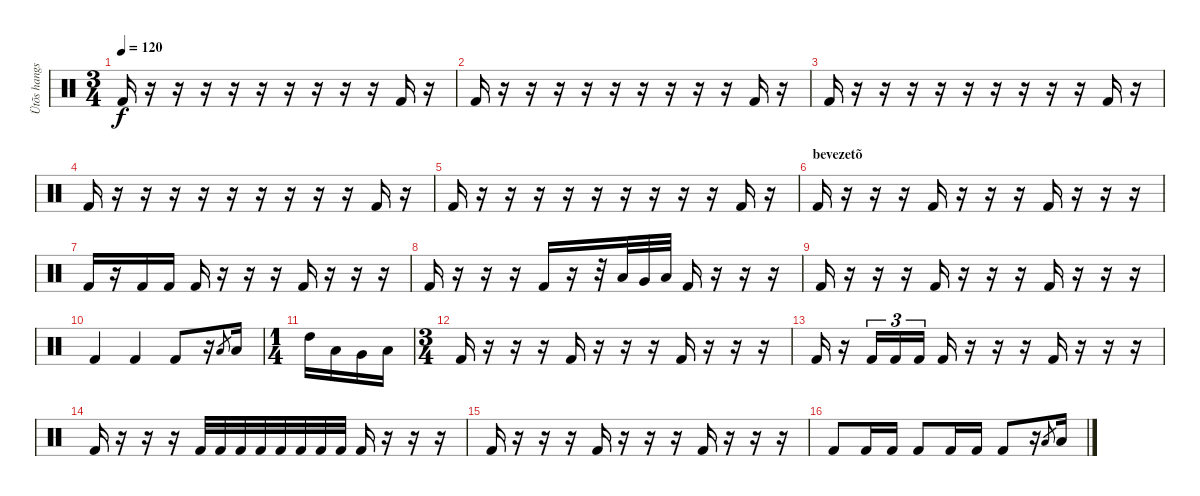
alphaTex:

\track ("Ütõs hangszer" "Ütõs hangs") {instrument percussion}
\staff {score}
\articulation defaults
\ts (3 4)
\tempo 120
\clef neutral
\ks c "Kick (hit) 2".16{dy f}
r.16 r.16 r.16 r.16 r.16 r.16 r.16 r.16 r.16 "Kick (hit) 2".16 r.16 |
"Kick (hit) 2".16 r.16 r.16 r.16 r.16 r.16 r.16 r.16 r.16 r.16 "Kick (hit) 2".16 r.16 |
"Kick (hit) 2".16 r.16 r.16 r.16 r.16 r.16 r.16 r.16 r.16 r.16 "Kick (hit) 2".16 r.16 |
"Kick (hit) 2".16 r.16 r.16 r.16 r.16 r.16 r.16 r.16 r.16 r.16 "Kick (hit) 2".16 r.16 |
"Kick (hit) 2".16 r.16 r.16 r.16 r.16 r.16 r.16 r.16 r.16 r.16 "Kick (hit) 2".16 r.16 |
\section ("" "bevezetõ")
"Kick (hit) 2".16 r.16 r.16 r.16 "Kick (hit) 2".16 r.16 r.16 r.16 "Kick (hit) 2".16 r.16 r.16 r.16 |
"Kick (hit) 2".16 r.16 "Kick (hit) 2".16 "Kick (hit) 2".16 "Kick (hit) 2".16 r.16 r.16 r.16 "Kick (hit) 2".16 r.16 r.16 r.16 |
"Kick (hit) 2".16 r.16 r.16 r.16 "Kick (hit) 2".16 r.16 r.32 "Low Tom (hit)".32 "Very Low Tom (hit)".32 "Low Floor Tom (hit)".32 "Kick (hit) 2".16 r.16 r.16 r.16 |
"Kick (hit) 2".16 r.16 r.16 r.16 "Kick (hit) 2".16 r.16 r.16 r.16 "Kick (hit) 2".16 r.16 r.16 r.16 |
"Kick (hit) 2".4 "Kick (hit) 2".4 "Kick (hit) 2".8 r.16 "Low Tom (hit)".8{gr} "Low Tom (hit)".16 |
\ts (1 4)
"High Tom (hit)".16 "Low Tom (hit)".16 "Very Low Tom (hit)".16 "Low Floor Tom (hit)".16 |
\ts (3 4)
"Kick (hit) 2".16 r.16 r.16 r.16 "Kick (hit) 2".16 r.16 r.16 r.16 "Kick (hit) 2".16 r.16 r.16 r.16 |
"Kick (hit) 2".16 r.16 "Kick (hit) 2".16{tu (3 2)} "Kick (hit) 2".16{tu (3 2)} "Kick (hit) 2".16{tu (3 2)} "Kick (hit) 2".16 r.16 r.16 r.16 "Kick (hit) 2".16 r.16 r.16 r.16 |
"Kick (hit) 2".16 r.16 r.16 r.16 "Kick (hit) 2".32 "Kick (hit) 2".32 "Kick (hit) 2".32 "Kick (hit) 2".32 "Kick (hit) 2".32 "Kick (hit) 2".32 "Kick (hit) 2".32 "Kick (hit) 2".32 "Kick (hit) 2".16 r.16 r.16 r.16 |
"Kick (hit) 2".16 r.16 r.16 r.16 "Kick (hit) 2".16 r.16 r.16 r.16 "Kick (hit) 2".16 r.16 r.16 r.16 |
"Kick (hit) 2".8 "Kick (hit) 2".16 "Kick (hit) 2".16 "Kick (hit) 2".8 "Kick (hit) 2".16 "Kick (hit) 2".16 "Kick (hit) 2".8 r.16 "Low Tom (hit)".8{gr} "Low Tom (hit)".16
